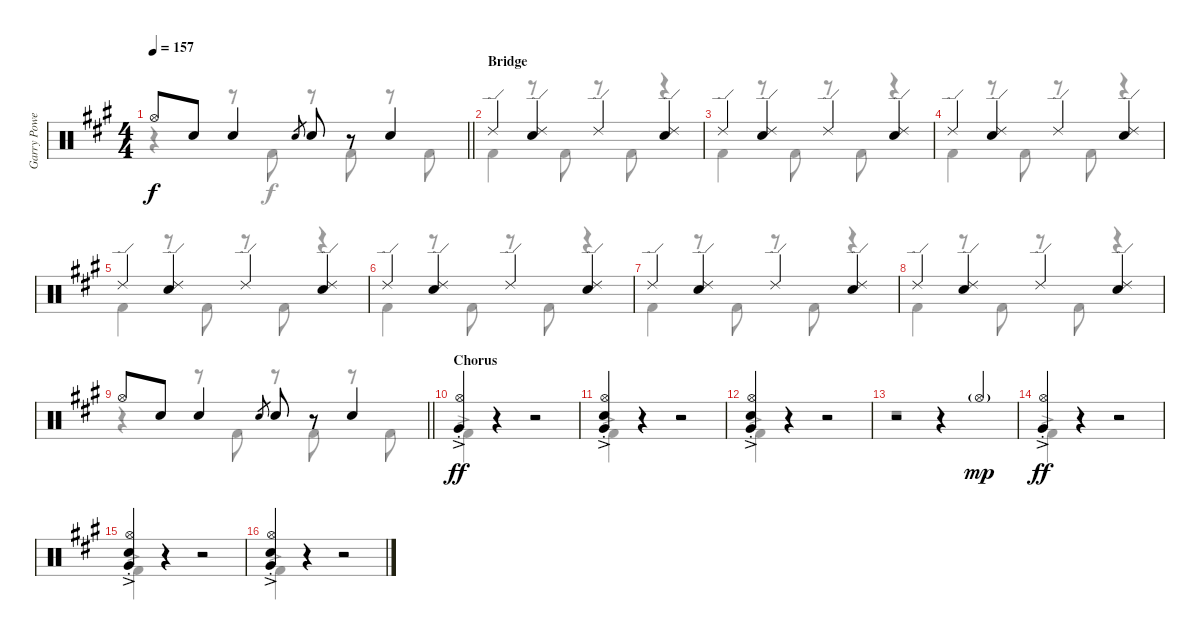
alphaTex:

\track ("Garry Powell" "Garry Powe") {instrument percussion}
\staff {score}
\articulation defaults
\voice
\ts (4 4)
\tempo 157
\clef neutral
\barLineRight lightlight
\ks a "Hi-Hat (open)".8{dy f} "Electric Snare (hit)".8 "Electric Snare (hit)".4 "Electric Snare (hit)".8{gr} "Electric Snare (hit)".8
r.8 "Electric Snare (hit)".4 |
\section ("" "Bridge")
"Ride (edge) 2".4 ("Ride (edge) 2" "Electric Snare (hit)").4 "Ride (edge) 2".4 ("Ride (edge) 2" "Electric Snare (hit)").4 |
"Ride (edge) 2".4 ("Ride (edge) 2" "Electric Snare (hit)").4 "Ride (edge) 2".4 ("Ride (edge) 2" "Electric Snare (hit)").4 |
"Ride (edge) 2".4 ("Ride (edge) 2" "Electric Snare (hit)").4 "Ride (edge) 2".4 ("Ride (edge) 2" "Electric Snare (hit)").4 |
"Ride (edge) 2".4 ("Ride (edge) 2" "Electric Snare (hit)").4 "Ride (edge) 2".4 ("Ride (edge) 2" "Electric Snare (hit)").4 |
"Ride (edge) 2".4 ("Ride (edge) 2" "Electric Snare (hit)").4 "Ride (edge) 2".4 ("Ride (edge) 2" "Electric Snare (hit)").4 |
"Ride (edge) 2".4 ("Ride (edge) 2" "Electric Snare (hit)").4 "Ride (edge) 2".4 ("Ride (edge) 2" "Electric Snare (hit)").4 |
"Ride (edge) 2".4 ("Ride (edge) 2" "Electric Snare (hit)").4 "Ride (edge) 2".4 ("Ride (edge) 2" "Electric Snare (hit)").4 |
\barLineRight lightlight "Hi-Hat (open)".8 "Electric Snare (hit)".8 "Electric Snare (hit)".4 "Electric Snare (hit)".8{gr} "Electric Snare (hit)".8
r.8 "Electric Snare (hit)".4 |
\section ("" "Chorus")
("Hi-Hat (open)" "Very Low Tom (hit)"{ac st}).4{dy ff} r.4 r.2 |
("Hi-Hat (open)" "Very Low Tom (hit)"{ac st} "Electric Snare (hit)"{ac st}).4 r.4 r.2 |
("Hi-Hat (open)" "Very Low Tom (hit)"{ac st} "Electric Snare (hit)"{ac st}).4 r.4 r.2 |
r.2 r.4 "Hi-Hat (open)"{g}.4{dy mp} |
("Hi-Hat (open)" "Very Low Tom (hit)"{ac st}).4{dy ff} r.4 r.2 |
("Hi-Hat (open)" "Very Low Tom (hit)"{ac st} "Electric Snare (hit)"{ac st}).4 r.4 r.2 |
("Hi-Hat (open)" "Very Low Tom (hit)"{ac st} "Electric Snare (hit)"{ac st}).4 r.4 r.2
\voice
\clef neutral
\ottava regular
\simile none
\barLineRight lightlight
\ks a
r.4{dy f} r.8 "Kick (hit) 2".8 r.8 "Kick (hit) 2".8 r.8 "Kick (hit) 2".8 |
"Kick (hit) 2".4 r.8 "Kick (hit) 2".8 r.8 "Kick (hit) 2".8 r.4 |
"Kick (hit) 2".4 r.8 "Kick (hit) 2".8 r.8 "Kick (hit) 2".8 r.4 |
"Kick (hit) 2".4 r.8 "Kick (hit) 2".8 r.8 "Kick (hit) 2".8 r.4 |
"Kick (hit) 2".4 r.8 "Kick (hit) 2".8 r.8 "Kick (hit) 2".8 r.4 |
"Kick (hit) 2".4 r.8 "Kick (hit) 2".8 r.8 "Kick (hit) 2".8 r.4 |
"Kick (hit) 2".4 r.8 "Kick (hit) 2".8 r.8 "Kick (hit) 2".8 r.4 |
"Kick (hit) 2".4 r.8 "Kick (hit) 2".8 r.8 "Kick (hit) 2".8 r.4 |
\barLineRight lightlight
r.4 r.8 "Kick (hit) 2".8 r.8 "Kick (hit) 2".8 r.8 "Kick (hit) 2".8 |
"Kick (hit) 2"{ac st}.4{dy ff} r.4 r.2 |
"Kick (hit) 2"{ac st}.4 r.4 r.2 |
"Kick (hit) 2"{ac st}.4 r.4 r.2 |
r.1 |
"Kick (hit) 2"{ac st}.4 r.4 r.2 |
"Kick (hit) 2"{ac st}.4 r.4 r.2 |
"Kick (hit) 2"{ac st}.4 r.4 r.2
